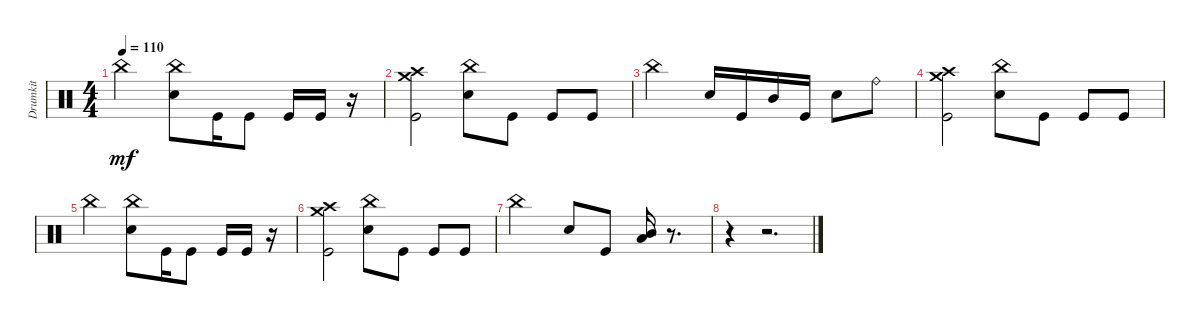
\track ("Drumkit" "Drumkit") {instrument percussion}
\staff {score}
\articulation defaults
\ts (4 4)
\tempo 110
\clef neutral
\ks c "China (hit)".2{dy mf}
("Snare (hit) 2" "China (hit)").8 "Kick (hit)".16 "Kick (hit)".8 "Kick (hit)".16 "Kick (hit)".16 r.16 |
("Kick (hit)" "Crash high (hit)" "Crash medium (hit)").2 ("Snare (hit) 2" "China (hit)").8 "Kick (hit)".8 "Kick (hit)".8 "Kick (hit)".8 |
"China (hit)".2 "Snare (hit) 2".16 "Kick (hit)".16 "Mid Tom (hit)".16 "Kick (hit)".16 "Snare (hit) 2".8 "Ride (bell)".8 |
("Kick (hit)" "Crash high (hit)" "Crash medium (hit)").2 ("Snare (hit) 2" "China (hit)").8 "Kick (hit)".8 "Kick (hit)".8 "Kick (hit)".8 |
"China (hit)".2 ("Snare (hit) 2" "China (hit)").8 "Kick (hit)".16 "Kick (hit)".8 "Kick (hit)".16 "Kick (hit)".16 r.16 |
("Kick (hit)" "Crash high (hit)" "Crash medium (hit)").2 ("Snare (hit) 2" "China (hit)").8 "Kick (hit)".8 "Kick (hit)".8 "Kick (hit)".8 |
"China (hit)".2 "Snare (hit) 2".8 "Kick (hit)".8 ("Low Floor Tom (hit)" "Mid Tom (hit)").16 r.8{d} |
r.4 r.2{d}
